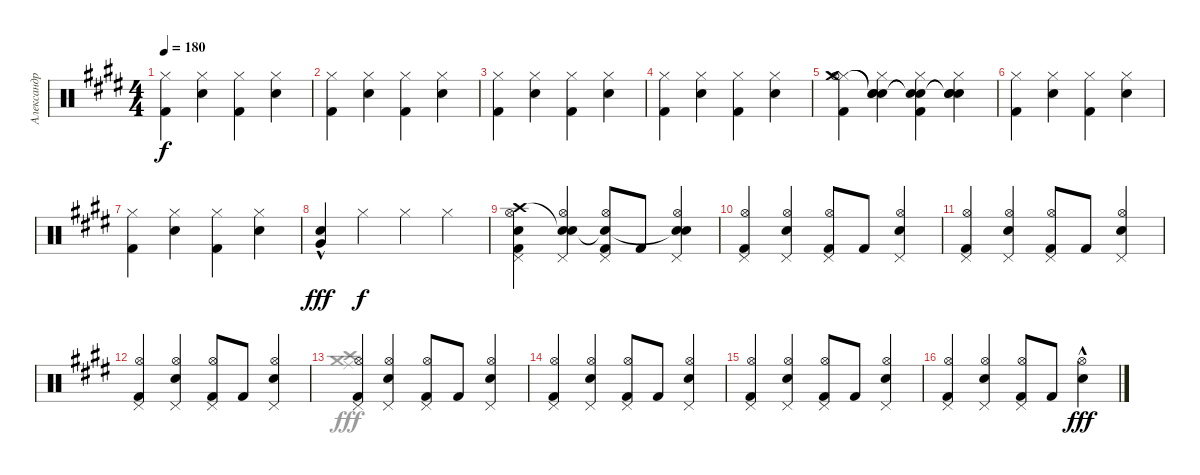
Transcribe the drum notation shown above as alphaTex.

\track ("Александр Новиков" "Александр ") {instrument percussion}
\staff {score}
\articulation defaults
\voice
\ts (4 4)
\tempo 180
\clef neutral
\ks c#minor
("Hi-Hat (closed)" "Kick (hit) 2").4{dy f} ("Hi-Hat (closed)" "Electric Snare (hit)").4 ("Hi-Hat (closed)" "Kick (hit) 2").4 ("Hi-Hat (closed)" "Electric Snare (hit)").4 |
("Hi-Hat (closed)" "Kick (hit) 2").4 ("Hi-Hat (closed)" "Electric Snare (hit)").4 ("Hi-Hat (closed)" "Kick (hit) 2").4 ("Hi-Hat (closed)" "Electric Snare (hit)").4 |
("Hi-Hat (closed)" "Kick (hit) 2").4 ("Hi-Hat (closed)" "Electric Snare (hit)").4 ("Hi-Hat (closed)" "Kick (hit) 2").4 ("Hi-Hat (closed)" "Electric Snare (hit)").4 |
("Hi-Hat (closed)" "Kick (hit) 2").4 ("Hi-Hat (closed)" "Electric Snare (hit)").4 ("Hi-Hat (closed)" "Kick (hit) 2").4 ("Hi-Hat (closed)" "Electric Snare (hit)").4 |
("Hi-Hat (closed)" "Kick (hit) 2" "Hi-Hat (open)" "Crash medium (hit)").4 ("Hi-Hat (closed)" "Electric Snare (hit)" "Snare (hit)"{t} "Snare (hit)"{t}).4 ("Hi-Hat (closed)" "Kick (hit) 2" "Snare (hit)"{t} "Snare (hit)"{t}).4 ("Hi-Hat (closed)" "Electric Snare (hit)" "Snare (hit)"{t} "Snare (hit)"{t}).4 |
("Hi-Hat (closed)" "Kick (hit) 2").4 ("Hi-Hat (closed)" "Electric Snare (hit)").4 ("Hi-Hat (closed)" "Kick (hit) 2").4 ("Hi-Hat (closed)" "Electric Snare (hit)").4 |
("Hi-Hat (closed)" "Kick (hit) 2").4 ("Hi-Hat (closed)" "Electric Snare (hit)").4 ("Hi-Hat (closed)" "Kick (hit) 2").4 ("Hi-Hat (closed)" "Electric Snare (hit)").4 |
("Very Low Tom (hit)"{hac} "Electric Snare (hit)"{hac}).4{dy fff} "Hi-Hat (closed)".4{dy f} "Hi-Hat (closed)".4 "Hi-Hat (closed)".4 |
("Hi-Hat (open)" "Kick (hit) 2" "Pedal Hi-Hat (hit)" "Crash high (hit)" "Snare (hit)").4 ("Hi-Hat (open)" "Electric Snare (hit)" "Pedal Hi-Hat (hit)" "Snare (hit)"{t}).4 ("Hi-Hat (open)" "Kick (hit) 2" "Pedal Hi-Hat (hit)" "Snare (hit)"{t}).8 "Kick (hit) 2".8 ("Hi-Hat (open)" "Electric Snare (hit)" "Pedal Hi-Hat (hit)" "Snare (hit)"{t}).4 |
("Hi-Hat (open)" "Kick (hit) 2" "Pedal Hi-Hat (hit)").4 ("Hi-Hat (open)" "Electric Snare (hit)" "Pedal Hi-Hat (hit)").4 ("Hi-Hat (open)" "Kick (hit) 2" "Pedal Hi-Hat (hit)").8 "Kick (hit) 2".8 ("Hi-Hat (open)" "Electric Snare (hit)" "Pedal Hi-Hat (hit)").4 |
("Hi-Hat (open)" "Kick (hit) 2" "Pedal Hi-Hat (hit)").4 ("Hi-Hat (open)" "Electric Snare (hit)" "Pedal Hi-Hat (hit)").4 ("Hi-Hat (open)" "Kick (hit) 2" "Pedal Hi-Hat (hit)").8 "Kick (hit) 2".8 ("Hi-Hat (open)" "Electric Snare (hit)" "Pedal Hi-Hat (hit)").4 |
("Hi-Hat (open)" "Kick (hit) 2" "Pedal Hi-Hat (hit)").4 ("Hi-Hat (open)" "Electric Snare (hit)" "Pedal Hi-Hat (hit)").4 ("Hi-Hat (open)" "Kick (hit) 2" "Pedal Hi-Hat (hit)").8 "Kick (hit) 2".8 ("Hi-Hat (open)" "Electric Snare (hit)" "Pedal Hi-Hat (hit)").4 |
("Hi-Hat (open)" "Kick (hit) 2" "Pedal Hi-Hat (hit)").4 ("Hi-Hat (open)" "Electric Snare (hit)" "Pedal Hi-Hat (hit)").4 ("Hi-Hat (open)" "Kick (hit) 2" "Pedal Hi-Hat (hit)").8 "Kick (hit) 2".8 ("Hi-Hat (open)" "Electric Snare (hit)" "Pedal Hi-Hat (hit)").4 |
("Hi-Hat (open)" "Kick (hit) 2" "Pedal Hi-Hat (hit)").4 ("Hi-Hat (open)" "Electric Snare (hit)" "Pedal Hi-Hat (hit)").4 ("Hi-Hat (open)" "Kick (hit) 2" "Pedal Hi-Hat (hit)").8 "Kick (hit) 2".8 ("Hi-Hat (open)" "Electric Snare (hit)" "Pedal Hi-Hat (hit)").4 |
("Hi-Hat (open)" "Kick (hit) 2" "Pedal Hi-Hat (hit)").4 ("Hi-Hat (open)" "Electric Snare (hit)" "Pedal Hi-Hat (hit)").4 ("Hi-Hat (open)" "Kick (hit) 2" "Pedal Hi-Hat (hit)").8 "Kick (hit) 2".8 ("Hi-Hat (open)" "Electric Snare (hit)" "Pedal Hi-Hat (hit)").4 |
("Hi-Hat (open)" "Kick (hit) 2" "Pedal Hi-Hat (hit)").4 ("Hi-Hat (open)" "Electric Snare (hit)" "Pedal Hi-Hat (hit)").4 ("Hi-Hat (open)" "Kick (hit) 2" "Pedal Hi-Hat (hit)").8 "Kick (hit) 2".8 ("Hi-Hat (open)"{hac} "Electric Snare (hit)").4{dy fff}
\voice
\clef neutral
\ottava regular
\simile none
\ks c#minor
|
|
|
|
|
|
|
|
|
|
|
|
("Crash high (hit)" "Crash medium (hit)" "Ride (middle)").1 |
|
|
